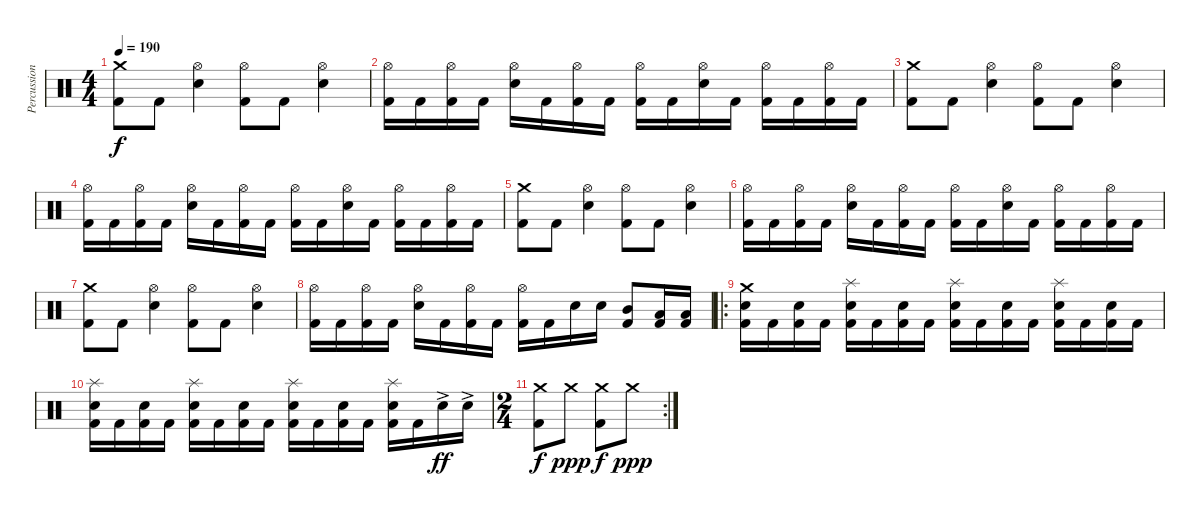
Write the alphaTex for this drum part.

\track ("Percussion" "Percussion") {instrument percussion}
\staff {score}
\articulation defaults
\ts (4 4)
\tempo 190
\clef neutral
\ks c
("Crash medium (hit)" "Kick (hit) 2").8{dy f} "Kick (hit) 2".8 ("Hi-Hat (open)" "Electric Snare (hit)").4 ("Hi-Hat (open)" "Kick (hit) 2").8 "Kick (hit) 2".8 ("Hi-Hat (open)" "Electric Snare (hit)").4 |
("Hi-Hat (open)" "Kick (hit) 2").16 "Kick (hit) 2".16 ("Hi-Hat (open)" "Kick (hit) 2").16 "Kick (hit) 2".16 ("Hi-Hat (open)" "Electric Snare (hit)").16 "Kick (hit) 2".16 ("Hi-Hat (open)" "Kick (hit) 2").16 "Kick (hit) 2".16 ("Hi-Hat (open)" "Kick (hit) 2").16 "Kick (hit) 2".16 ("Hi-Hat (open)" "Electric Snare (hit)").16 "Kick (hit) 2".16 ("Hi-Hat (open)" "Kick (hit) 2").16 "Kick (hit) 2".16 ("Hi-Hat (open)" "Kick (hit) 2").16 "Kick (hit) 2".16 |
("Crash medium (hit)" "Kick (hit) 2").8 "Kick (hit) 2".8 ("Hi-Hat (open)" "Electric Snare (hit)").4 ("Hi-Hat (open)" "Kick (hit) 2").8 "Kick (hit) 2".8 ("Hi-Hat (open)" "Electric Snare (hit)").4 |
("Hi-Hat (open)" "Kick (hit) 2").16 "Kick (hit) 2".16 ("Hi-Hat (open)" "Kick (hit) 2").16 "Kick (hit) 2".16 ("Hi-Hat (open)" "Electric Snare (hit)").16 "Kick (hit) 2".16 ("Hi-Hat (open)" "Kick (hit) 2").16 "Kick (hit) 2".16 ("Hi-Hat (open)" "Kick (hit) 2").16 "Kick (hit) 2".16 ("Hi-Hat (open)" "Electric Snare (hit)").16 "Kick (hit) 2".16 ("Hi-Hat (open)" "Kick (hit) 2").16 "Kick (hit) 2".16 ("Hi-Hat (open)" "Kick (hit) 2").16 "Kick (hit) 2".16 |
("Crash medium (hit)" "Kick (hit) 2").8 "Kick (hit) 2".8 ("Hi-Hat (open)" "Electric Snare (hit)").4 ("Hi-Hat (open)" "Kick (hit) 2").8 "Kick (hit) 2".8 ("Hi-Hat (open)" "Electric Snare (hit)").4 |
("Hi-Hat (open)" "Kick (hit) 2").16 "Kick (hit) 2".16 ("Hi-Hat (open)" "Kick (hit) 2").16 "Kick (hit) 2".16 ("Hi-Hat (open)" "Electric Snare (hit)").16 "Kick (hit) 2".16 ("Hi-Hat (open)" "Kick (hit) 2").16 "Kick (hit) 2".16 ("Hi-Hat (open)" "Kick (hit) 2").16 "Kick (hit) 2".16 ("Hi-Hat (open)" "Electric Snare (hit)").16 "Kick (hit) 2".16 ("Hi-Hat (open)" "Kick (hit) 2").16 "Kick (hit) 2".16 ("Hi-Hat (open)" "Kick (hit) 2").16 "Kick (hit) 2".16 |
("Crash medium (hit)" "Kick (hit) 2").8 "Kick (hit) 2".8 ("Hi-Hat (open)" "Electric Snare (hit)").4 ("Hi-Hat (open)" "Kick (hit) 2").8 "Kick (hit) 2".8 ("Hi-Hat (open)" "Electric Snare (hit)").4 |
("Hi-Hat (open)" "Kick (hit) 2").16 "Kick (hit) 2".16 ("Hi-Hat (open)" "Kick (hit) 2").16 "Kick (hit) 2".16 ("Hi-Hat (open)" "Electric Snare (hit)").16 "Kick (hit) 2".16 ("Hi-Hat (open)" "Kick (hit) 2").16 "Kick (hit) 2".16 ("Hi-Hat (open)" "Kick (hit) 2").16 "Kick (hit) 2".16 "Electric Snare (hit)".16 "Electric Snare (hit)".16 ("Mid Tom (hit)" "Kick (hit) 2").8 ("Low Tom (hit)" "Kick (hit) 2").16 ("Low Tom (hit)" "Kick (hit) 2").16 |
\ro
("Crash medium (hit)" "Electric Snare (hit)" "Kick (hit) 2").16 "Kick (hit) 2".16 ("Electric Snare (hit)" "Kick (hit) 2").16 "Kick (hit) 2".16 ("Splash (hit)" "Electric Snare (hit)" "Kick (hit) 2").16 "Kick (hit) 2".16 ("Electric Snare (hit)" "Kick (hit) 2").16 "Kick (hit) 2".16 ("Splash (hit)" "Electric Snare (hit)" "Kick (hit) 2").16 "Kick (hit) 2".16 ("Electric Snare (hit)" "Kick (hit) 2").16 "Kick (hit) 2".16 ("Splash (hit)" "Electric Snare (hit)" "Kick (hit) 2").16 "Kick (hit) 2".16 ("Electric Snare (hit)" "Kick (hit) 2").16 "Kick (hit) 2".16 |
("Splash (hit)" "Electric Snare (hit)" "Kick (hit) 2").16 "Kick (hit) 2".16 ("Electric Snare (hit)" "Kick (hit) 2").16 "Kick (hit) 2".16 ("Splash (hit)" "Electric Snare (hit)" "Kick (hit) 2").16 "Kick (hit) 2".16 ("Electric Snare (hit)" "Kick (hit) 2").16 "Kick (hit) 2".16 ("Splash (hit)" "Electric Snare (hit)" "Kick (hit) 2").16 "Kick (hit) 2".16 ("Electric Snare (hit)" "Kick (hit) 2").16 "Kick (hit) 2".16 ("Splash (hit)" "Electric Snare (hit)" "Kick (hit) 2").16 "Kick (hit) 2".16 "Electric Snare (hit)"{ac}.16{dy ff} "Electric Snare (hit)"{ac}.16 |
\rc 2
\ts (2 4)
("Crash medium (hit)" "Kick (hit) 2").8{dy f} "Crash medium (hit)".8{dy ppp} ("Crash medium (hit)" "Kick (hit) 2").8{dy f} "Crash medium (hit)".8{dy ppp}
